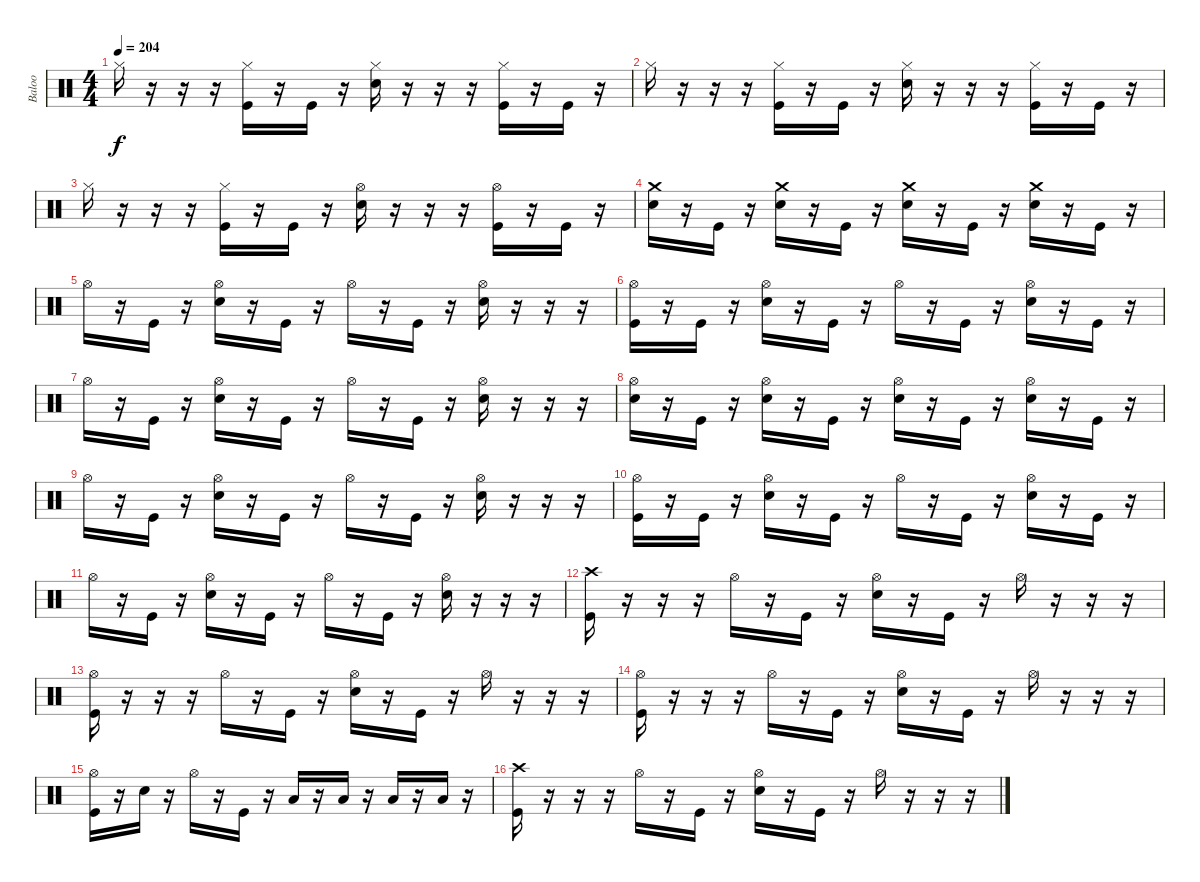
\track ("Baloo" "Baloo") {instrument percussion}
\staff {score}
\articulation defaults
\ts (4 4)
\tempo 204
\clef neutral
\ks c "Hi-Hat (closed)".16{dy f}
r.16 r.16 r.16 ("Hi-Hat (closed)" "Kick (hit)").16 r.16 "Kick (hit)".16 r.16 ("Hi-Hat (closed)" "Electric Snare (hit)").16 r.16 r.16 r.16 ("Hi-Hat (closed)" "Kick (hit)").16 r.16 "Kick (hit)".16 r.16 |
"Hi-Hat (closed)".16 r.16 r.16 r.16 ("Hi-Hat (closed)" "Kick (hit)").16 r.16 "Kick (hit)".16 r.16 ("Hi-Hat (closed)" "Electric Snare (hit)").16 r.16 r.16 r.16 ("Hi-Hat (closed)" "Kick (hit)").16 r.16 "Kick (hit)".16 r.16 |
"Hi-Hat (closed)".16 r.16 r.16 r.16 ("Hi-Hat (closed)" "Kick (hit)").16 r.16 "Kick (hit)".16 r.16 ("Hi-Hat (open)" "Electric Snare (hit)").16 r.16 r.16 r.16 ("Hi-Hat (open)" "Kick (hit)").16 r.16 "Kick (hit)".16 r.16 |
("Crash medium (hit)" "Electric Snare (hit)").16 r.16 "Kick (hit)".16 r.16 ("Crash medium (hit)" "Electric Snare (hit)").16 r.16 "Kick (hit)".16 r.16 ("Crash medium (hit)" "Electric Snare (hit)").16 r.16 "Kick (hit)".16 r.16 ("Crash medium (hit)" "Electric Snare (hit)").16 r.16 "Kick (hit)".16 r.16 |
"Hi-Hat (open)".16 r.16 "Kick (hit)".16 r.16 ("Hi-Hat (open)" "Electric Snare (hit)").16 r.16 "Kick (hit)".16 r.16 "Hi-Hat (open)".16 r.16 "Kick (hit)".16 r.16 ("Hi-Hat (open)" "Electric Snare (hit)").16 r.16 r.16 r.16 |
("Hi-Hat (open)" "Kick (hit)").16 r.16 "Kick (hit)".16 r.16 ("Hi-Hat (open)" "Electric Snare (hit)").16 r.16 "Kick (hit)".16 r.16 "Hi-Hat (open)".16 r.16 "Kick (hit)".16 r.16 ("Hi-Hat (open)" "Electric Snare (hit)").16 r.16 "Kick (hit)".16 r.16 |
"Hi-Hat (open)".16 r.16 "Kick (hit)".16 r.16 ("Hi-Hat (open)" "Electric Snare (hit)").16 r.16 "Kick (hit)".16 r.16 "Hi-Hat (open)".16 r.16 "Kick (hit)".16 r.16 ("Hi-Hat (open)" "Electric Snare (hit)").16 r.16 r.16 r.16 |
("Hi-Hat (open)" "Electric Snare (hit)").16 r.16 "Kick (hit)".16 r.16 ("Hi-Hat (open)" "Electric Snare (hit)").16 r.16 "Kick (hit)".16 r.16 ("Hi-Hat (open)" "Electric Snare (hit)").16 r.16 "Kick (hit)".16 r.16 ("Hi-Hat (open)" "Electric Snare (hit)").16 r.16 "Kick (hit)".16 r.16 |
"Hi-Hat (open)".16 r.16 "Kick (hit)".16 r.16 ("Hi-Hat (open)" "Electric Snare (hit)").16 r.16 "Kick (hit)".16 r.16 "Hi-Hat (open)".16 r.16 "Kick (hit)".16 r.16 ("Hi-Hat (open)" "Electric Snare (hit)").16 r.16 r.16 r.16 |
("Hi-Hat (open)" "Kick (hit)").16 r.16 "Kick (hit)".16 r.16 ("Hi-Hat (open)" "Electric Snare (hit)").16 r.16 "Kick (hit)".16 r.16 "Hi-Hat (open)".16 r.16 "Kick (hit)".16 r.16 ("Hi-Hat (open)" "Electric Snare (hit)").16 r.16 "Kick (hit)".16 r.16 |
"Hi-Hat (open)".16 r.16 "Kick (hit)".16 r.16 ("Hi-Hat (open)" "Electric Snare (hit)").16 r.16 "Kick (hit)".16 r.16 "Hi-Hat (open)".16 r.16 "Kick (hit)".16 r.16 ("Hi-Hat (open)" "Electric Snare (hit)").16 r.16 r.16 r.16 |
("Crash high (hit)" "Kick (hit)").16 r.16 r.16 r.16 "Hi-Hat (open)".16 r.16 "Kick (hit)".16 r.16 ("Hi-Hat (open)" "Electric Snare (hit)").16 r.16 "Kick (hit)".16 r.16 "Hi-Hat (open)".16 r.16 r.16 r.16 |
("Hi-Hat (open)" "Kick (hit)").16 r.16 r.16 r.16 "Hi-Hat (open)".16 r.16 "Kick (hit)".16 r.16 ("Hi-Hat (open)" "Electric Snare (hit)").16 r.16 "Kick (hit)".16 r.16 "Hi-Hat (open)".16 r.16 r.16 r.16 |
("Hi-Hat (open)" "Kick (hit)").16 r.16 r.16 r.16 "Hi-Hat (open)".16 r.16 "Kick (hit)".16 r.16 ("Hi-Hat (open)" "Electric Snare (hit)").16 r.16 "Kick (hit)".16 r.16 "Hi-Hat (open)".16 r.16 r.16 r.16 |
("Hi-Hat (open)" "Kick (hit)").16 r.16 "Electric Snare (hit)".16 r.16 "Hi-Hat (open)".16 r.16 "Kick (hit)".16 r.16 "Low Tom (hit)".16 r.16 "Low Tom (hit)".16 r.16 "Low Tom (hit)".16 r.16 "Low Floor Tom (hit)".16 r.16 |
("Crash high (hit)" "Kick (hit)").16 r.16 r.16 r.16 "Hi-Hat (open)".16 r.16 "Kick (hit)".16 r.16 ("Hi-Hat (open)" "Electric Snare (hit)").16 r.16 "Kick (hit)".16 r.16 "Hi-Hat (open)".16 r.16 r.16 r.16
